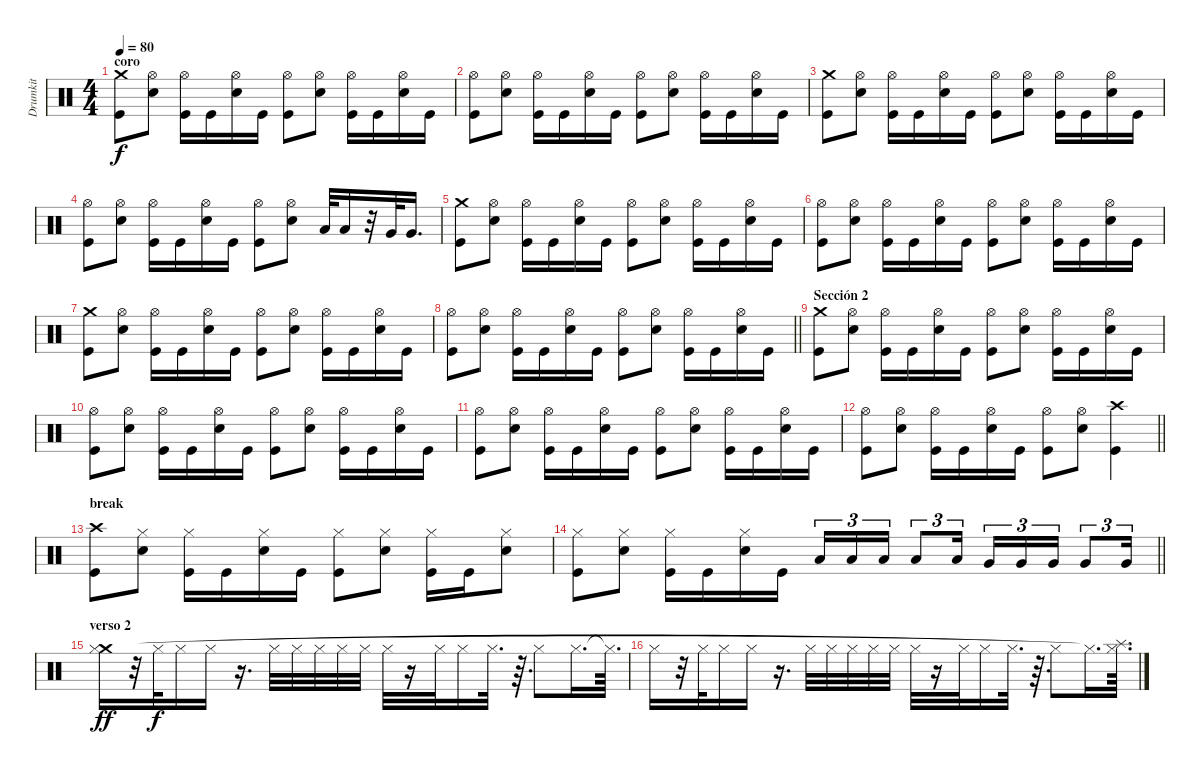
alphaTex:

\track ("Drumkit" "Drumkit") {instrument percussion}
\staff {score}
\articulation defaults
\ts (4 4)
\section ("" "coro")
\tempo 80
\clef neutral
\ks c
("Crash medium (hit)" "Kick (hit)").8{dy f} ("Hi-Hat (open)" "Snare (hit) 2").8 ("Hi-Hat (open)" "Kick (hit)").16 "Kick (hit)".16 ("Hi-Hat (open)" "Snare (hit) 2").16 "Kick (hit)".16 ("Hi-Hat (open)" "Kick (hit)").8 ("Hi-Hat (open)" "Snare (hit) 2").8 ("Hi-Hat (open)" "Kick (hit)").16 "Kick (hit)".16 ("Hi-Hat (open)" "Snare (hit) 2").16 "Kick (hit)".16 |
("Hi-Hat (open)" "Kick (hit)").8 ("Hi-Hat (open)" "Snare (hit) 2").8 ("Hi-Hat (open)" "Kick (hit)").16 "Kick (hit)".16 ("Hi-Hat (open)" "Snare (hit) 2").16 "Kick (hit)".16 ("Hi-Hat (open)" "Kick (hit)").8 ("Hi-Hat (open)" "Snare (hit) 2").8 ("Hi-Hat (open)" "Kick (hit)").16 "Kick (hit)".16 ("Hi-Hat (open)" "Snare (hit) 2").16 "Kick (hit)".16 |
("Crash medium (hit)" "Kick (hit)").8 ("Hi-Hat (open)" "Snare (hit) 2").8 ("Hi-Hat (open)" "Kick (hit)").16 "Kick (hit)".16 ("Hi-Hat (open)" "Snare (hit) 2").16 "Kick (hit)".16 ("Hi-Hat (open)" "Kick (hit)").8 ("Hi-Hat (open)" "Snare (hit) 2").8 ("Hi-Hat (open)" "Kick (hit)").16 "Kick (hit)".16 ("Hi-Hat (open)" "Snare (hit) 2").16 "Kick (hit)".16 |
("Hi-Hat (open)" "Kick (hit)").8 ("Hi-Hat (open)" "Snare (hit) 2").8 ("Hi-Hat (open)" "Kick (hit)").16 "Kick (hit)".16 ("Hi-Hat (open)" "Snare (hit) 2").16 "Kick (hit)".16 ("Hi-Hat (open)" "Kick (hit)").8 ("Hi-Hat (open)" "Snare (hit) 2").8 "Low Tom (hit)".32 "Low Tom (hit)".16 r.32 "Very Low Tom (hit)".32 "Very Low Tom (hit)".16{d} |
("Crash medium (hit)" "Kick (hit)").8 ("Hi-Hat (open)" "Snare (hit) 2").8 ("Hi-Hat (open)" "Kick (hit)").16 "Kick (hit)".16 ("Hi-Hat (open)" "Snare (hit) 2").16 "Kick (hit)".16 ("Hi-Hat (open)" "Kick (hit)").8 ("Hi-Hat (open)" "Snare (hit) 2").8 ("Hi-Hat (open)" "Kick (hit)").16 "Kick (hit)".16 ("Hi-Hat (open)" "Snare (hit) 2").16 "Kick (hit)".16 |
("Hi-Hat (open)" "Kick (hit)").8 ("Hi-Hat (open)" "Snare (hit) 2").8 ("Hi-Hat (open)" "Kick (hit)").16 "Kick (hit)".16 ("Hi-Hat (open)" "Snare (hit) 2").16 "Kick (hit)".16 ("Hi-Hat (open)" "Kick (hit)").8 ("Hi-Hat (open)" "Snare (hit) 2").8 ("Hi-Hat (open)" "Kick (hit)").16 "Kick (hit)".16 ("Hi-Hat (open)" "Snare (hit) 2").16 "Kick (hit)".16 |
("Crash medium (hit)" "Kick (hit)").8 ("Hi-Hat (open)" "Snare (hit) 2").8 ("Hi-Hat (open)" "Kick (hit)").16 "Kick (hit)".16 ("Hi-Hat (open)" "Snare (hit) 2").16 "Kick (hit)".16 ("Hi-Hat (open)" "Kick (hit)").8 ("Hi-Hat (open)" "Snare (hit) 2").8 ("Hi-Hat (open)" "Kick (hit)").16 "Kick (hit)".16 ("Hi-Hat (open)" "Snare (hit) 2").16 "Kick (hit)".16 |
\barLineRight lightlight
("Hi-Hat (open)" "Kick (hit)").8 ("Hi-Hat (open)" "Snare (hit) 2").8 ("Hi-Hat (open)" "Kick (hit)").16 "Kick (hit)".16 ("Hi-Hat (open)" "Snare (hit) 2").16 "Kick (hit)".16 ("Hi-Hat (open)" "Kick (hit)").8 ("Hi-Hat (open)" "Snare (hit) 2").8 ("Hi-Hat (open)" "Kick (hit)").16 "Kick (hit)".16 ("Hi-Hat (open)" "Snare (hit) 2").16 "Kick (hit)".16 |
\section ("" "Sección 2")
("Crash medium (hit)" "Kick (hit)").8 ("Hi-Hat (open)" "Snare (hit) 2").8 ("Hi-Hat (open)" "Kick (hit)").16 "Kick (hit)".16 ("Hi-Hat (open)" "Snare (hit) 2").16 "Kick (hit)".16 ("Hi-Hat (open)" "Kick (hit)").8 ("Hi-Hat (open)" "Snare (hit) 2").8 ("Hi-Hat (open)" "Kick (hit)").16 "Kick (hit)".16 ("Hi-Hat (open)" "Snare (hit) 2").16 "Kick (hit)".16 |
("Hi-Hat (open)" "Kick (hit)").8 ("Hi-Hat (open)" "Snare (hit) 2").8 ("Hi-Hat (open)" "Kick (hit)").16 "Kick (hit)".16 ("Hi-Hat (open)" "Snare (hit) 2").16 "Kick (hit)".16 ("Hi-Hat (open)" "Kick (hit)").8 ("Hi-Hat (open)" "Snare (hit) 2").8 ("Hi-Hat (open)" "Kick (hit)").16 "Kick (hit)".16 ("Hi-Hat (open)" "Snare (hit) 2").16 "Kick (hit)".16 |
("Hi-Hat (open)" "Kick (hit)").8 ("Hi-Hat (open)" "Snare (hit) 2").8 ("Hi-Hat (open)" "Kick (hit)").16 "Kick (hit)".16 ("Hi-Hat (open)" "Snare (hit) 2").16 "Kick (hit)".16 ("Hi-Hat (open)" "Kick (hit)").8 ("Hi-Hat (open)" "Snare (hit) 2").8 ("Hi-Hat (open)" "Kick (hit)").16 "Kick (hit)".16 ("Hi-Hat (open)" "Snare (hit) 2").16 "Kick (hit)".16 |
\barLineRight lightlight
("Hi-Hat (open)" "Kick (hit)").8 ("Hi-Hat (open)" "Snare (hit) 2").8 ("Hi-Hat (open)" "Kick (hit)").16 "Kick (hit)".16 ("Hi-Hat (open)" "Snare (hit) 2").16 "Kick (hit)".16 ("Hi-Hat (open)" "Kick (hit)").8 ("Hi-Hat (open)" "Snare (hit) 2").8 ("Crash high (hit)" "Kick (hit)").4 |
\section ("" "break")
("Crash high (hit)" "Kick (hit)").8 ("Hi-Hat (closed)" "Snare (hit) 2").8 ("Hi-Hat (closed)" "Kick (hit)").16 "Kick (hit)".16 ("Hi-Hat (closed)" "Snare (hit) 2").16 "Kick (hit)".16 ("Hi-Hat (closed)" "Kick (hit)").8 ("Hi-Hat (closed)" "Snare (hit) 2").8 ("Hi-Hat (closed)" "Kick (hit)").16 "Kick (hit)".16 ("Hi-Hat (closed)" "Snare (hit) 2").8 |
\barLineRight lightlight
("Hi-Hat (closed)" "Kick (hit)").8 ("Hi-Hat (closed)" "Snare (hit) 2").8 ("Hi-Hat (closed)" "Kick (hit)").16 "Kick (hit)".16 ("Hi-Hat (closed)" "Snare (hit) 2").16 "Kick (hit)".16 "Low Tom (hit)".16{tu (3 2)} "Low Tom (hit)".16{tu (3 2)} "Low Tom (hit)".16{tu (3 2)} "Low Tom (hit)".8{tu (3 2)} "Low Tom (hit)".16{tu (3 2)} "Very Low Tom (hit)".16{tu (3 2)} "Very Low Tom (hit)".16{tu (3 2)} "Very Low Tom (hit)".16{tu (3 2)} "Very Low Tom (hit)".8{tu (3 2)} "Very Low Tom (hit)".16{tu (3 2)} |
\section ("" "verso 2")
("Crash medium (hit)" "Hi-Hat (closed)").16{dy ff} r.32 "Hi-Hat (closed)".32{dy f} "Hi-Hat (closed)".16 "Hi-Hat (closed)".16 r.16{d} "Hi-Hat (closed)".32 "Hi-Hat (closed)".32 "Hi-Hat (closed)".32 "Hi-Hat (closed)".32 "Hi-Hat (closed)".32 "Hi-Hat (closed)".32 r.16 "Hi-Hat (closed)".32 "Hi-Hat (closed)".16 "Hi-Hat (closed)".32{d} r.64{d} "Hi-Hat (closed)".8 "Hi-Hat (closed)".16{d} "Hi-Hat (closed)"{t}.64{d} |
"Hi-Hat (closed)".16 r.32 "Hi-Hat (closed)".32 "Hi-Hat (closed)".16 "Hi-Hat (closed)".16 r.16{d} "Hi-Hat (closed)".32 "Hi-Hat (closed)".32 "Hi-Hat (closed)".32 "Hi-Hat (closed)".32 "Hi-Hat (closed)".32 "Hi-Hat (closed)".32 r.16 "Hi-Hat (closed)".32 "Hi-Hat (closed)".16 "Hi-Hat (closed)".32{d} r.64{d} "Hi-Hat (closed)".8 "Hi-Hat (closed)".16{d} ("Splash (hit)" "Hi-Hat (closed)"{t}).64{d}
